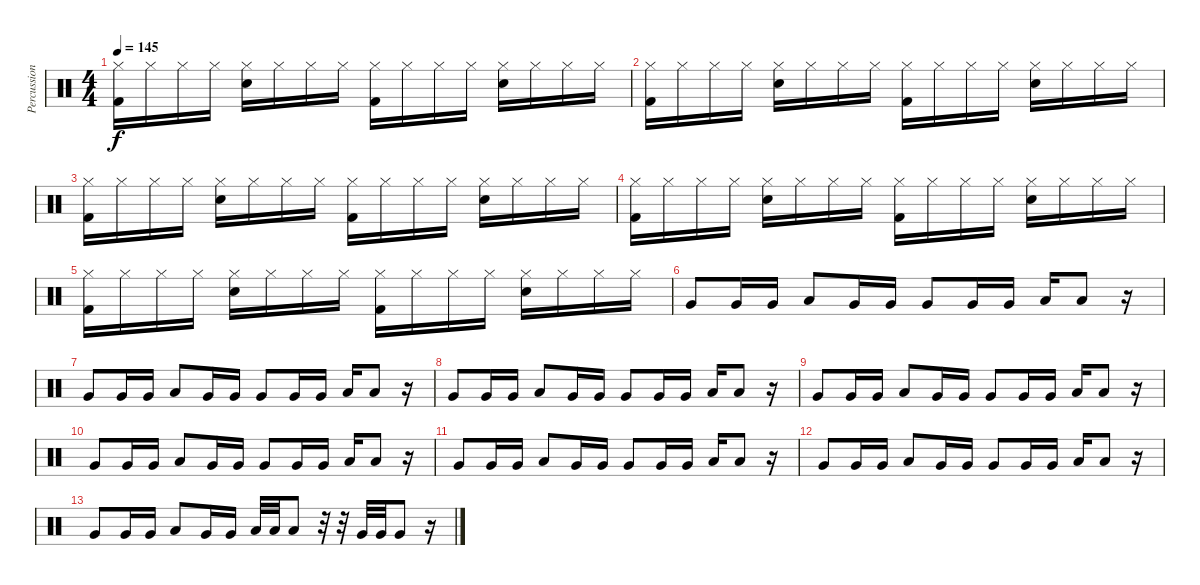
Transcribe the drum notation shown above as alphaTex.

\track ("Percussion" "Percussion") {instrument percussion}
\staff {score}
\articulation defaults
\ts (4 4)
\tempo 145
\clef neutral
\ks c
("Hi-Hat (closed)" "Kick (hit) 2").16{dy f} "Hi-Hat (closed)".16 "Hi-Hat (closed)".16 "Hi-Hat (closed)".16 ("Hi-Hat (closed)" "Electric Snare (hit)").16 "Hi-Hat (closed)".16 "Hi-Hat (closed)".16 "Hi-Hat (closed)".16 ("Hi-Hat (closed)" "Kick (hit) 2").16 "Hi-Hat (closed)".16 "Hi-Hat (closed)".16 "Hi-Hat (closed)".16 ("Hi-Hat (closed)" "Electric Snare (hit)").16 "Hi-Hat (closed)".16 "Hi-Hat (closed)".16 "Hi-Hat (closed)".16 |
("Hi-Hat (closed)" "Kick (hit) 2").16 "Hi-Hat (closed)".16 "Hi-Hat (closed)".16 "Hi-Hat (closed)".16 ("Hi-Hat (closed)" "Electric Snare (hit)").16 "Hi-Hat (closed)".16 "Hi-Hat (closed)".16 "Hi-Hat (closed)".16 ("Hi-Hat (closed)" "Kick (hit) 2").16 "Hi-Hat (closed)".16 "Hi-Hat (closed)".16 "Hi-Hat (closed)".16 ("Hi-Hat (closed)" "Electric Snare (hit)").16 "Hi-Hat (closed)".16 "Hi-Hat (closed)".16 "Hi-Hat (closed)".16 |
("Hi-Hat (closed)" "Kick (hit) 2").16 "Hi-Hat (closed)".16 "Hi-Hat (closed)".16 "Hi-Hat (closed)".16 ("Hi-Hat (closed)" "Electric Snare (hit)").16 "Hi-Hat (closed)".16 "Hi-Hat (closed)".16 "Hi-Hat (closed)".16 ("Hi-Hat (closed)" "Kick (hit) 2").16 "Hi-Hat (closed)".16 "Hi-Hat (closed)".16 "Hi-Hat (closed)".16 ("Hi-Hat (closed)" "Electric Snare (hit)").16 "Hi-Hat (closed)".16 "Hi-Hat (closed)".16 "Hi-Hat (closed)".16 |
("Hi-Hat (closed)" "Kick (hit) 2").16 "Hi-Hat (closed)".16 "Hi-Hat (closed)".16 "Hi-Hat (closed)".16 ("Hi-Hat (closed)" "Electric Snare (hit)").16 "Hi-Hat (closed)".16 "Hi-Hat (closed)".16 "Hi-Hat (closed)".16 ("Hi-Hat (closed)" "Kick (hit) 2").16 "Hi-Hat (closed)".16 "Hi-Hat (closed)".16 "Hi-Hat (closed)".16 ("Hi-Hat (closed)" "Electric Snare (hit)").16 "Hi-Hat (closed)".16 "Hi-Hat (closed)".16 "Hi-Hat (closed)".16 |
("Hi-Hat (closed)" "Kick (hit) 2").16 "Hi-Hat (closed)".16 "Hi-Hat (closed)".16 "Hi-Hat (closed)".16 ("Hi-Hat (closed)" "Electric Snare (hit)").16 "Hi-Hat (closed)".16 "Hi-Hat (closed)".16 "Hi-Hat (closed)".16 ("Hi-Hat (closed)" "Kick (hit) 2").16 "Hi-Hat (closed)".16 "Hi-Hat (closed)".16 "Hi-Hat (closed)".16 ("Hi-Hat (closed)" "Electric Snare (hit)").16 "Hi-Hat (closed)".16 "Hi-Hat (closed)".16 "Hi-Hat (closed)".16 |
"Very Low Tom (hit)".8 "Very Low Tom (hit)".16 "Very Low Tom (hit)".16 "Low Floor Tom (hit)".8 "Very Low Tom (hit)".16 "Very Low Tom (hit)".16 "Very Low Tom (hit)".8 "Very Low Tom (hit)".16 "Very Low Tom (hit)".16 "Low Floor Tom (hit)".16 "Low Tom (hit)".8 r.16 |
"Very Low Tom (hit)".8 "Very Low Tom (hit)".16 "Very Low Tom (hit)".16 "Low Floor Tom (hit)".8 "Very Low Tom (hit)".16 "Very Low Tom (hit)".16 "Very Low Tom (hit)".8 "Very Low Tom (hit)".16 "Very Low Tom (hit)".16 "Low Floor Tom (hit)".16 "Low Tom (hit)".8 r.16 |
"Very Low Tom (hit)".8 "Very Low Tom (hit)".16 "Very Low Tom (hit)".16 "Low Floor Tom (hit)".8 "Very Low Tom (hit)".16 "Very Low Tom (hit)".16 "Very Low Tom (hit)".8 "Very Low Tom (hit)".16 "Very Low Tom (hit)".16 "Low Floor Tom (hit)".16 "Low Tom (hit)".8 r.16 |
"Very Low Tom (hit)".8 "Very Low Tom (hit)".16 "Very Low Tom (hit)".16 "Low Floor Tom (hit)".8 "Very Low Tom (hit)".16 "Very Low Tom (hit)".16 "Very Low Tom (hit)".8 "Very Low Tom (hit)".16 "Very Low Tom (hit)".16 "Low Floor Tom (hit)".16 "Low Tom (hit)".8 r.16 |
"Very Low Tom (hit)".8 "Very Low Tom (hit)".16 "Very Low Tom (hit)".16 "Low Floor Tom (hit)".8 "Very Low Tom (hit)".16 "Very Low Tom (hit)".16 "Very Low Tom (hit)".8 "Very Low Tom (hit)".16 "Very Low Tom (hit)".16 "Low Floor Tom (hit)".16 "Low Tom (hit)".8 r.16 |
"Very Low Tom (hit)".8 "Very Low Tom (hit)".16 "Very Low Tom (hit)".16 "Low Floor Tom (hit)".8 "Very Low Tom (hit)".16 "Very Low Tom (hit)".16 "Very Low Tom (hit)".8 "Very Low Tom (hit)".16 "Very Low Tom (hit)".16 "Low Floor Tom (hit)".16 "Low Tom (hit)".8 r.16 |
"Very Low Tom (hit)".8 "Very Low Tom (hit)".16 "Very Low Tom (hit)".16 "Low Floor Tom (hit)".8 "Very Low Tom (hit)".16 "Very Low Tom (hit)".16 "Very Low Tom (hit)".8 "Very Low Tom (hit)".16 "Very Low Tom (hit)".16 "Low Floor Tom (hit)".16 "Low Tom (hit)".8 r.16 |
"Very Low Tom (hit)".8 "Very Low Tom (hit)".16 "Very Low Tom (hit)".16 "Low Floor Tom (hit)".8 "Very Low Tom (hit)".16 "Very Low Tom (hit)".16 "Low Tom (hit)".32 "Low Tom (hit)".32 "Low Tom (hit)".8 r.32 r.32 "Very Low Tom (hit)".32 "Very Low Tom (hit)".32 "Very Low Tom (hit)".8 r.16
